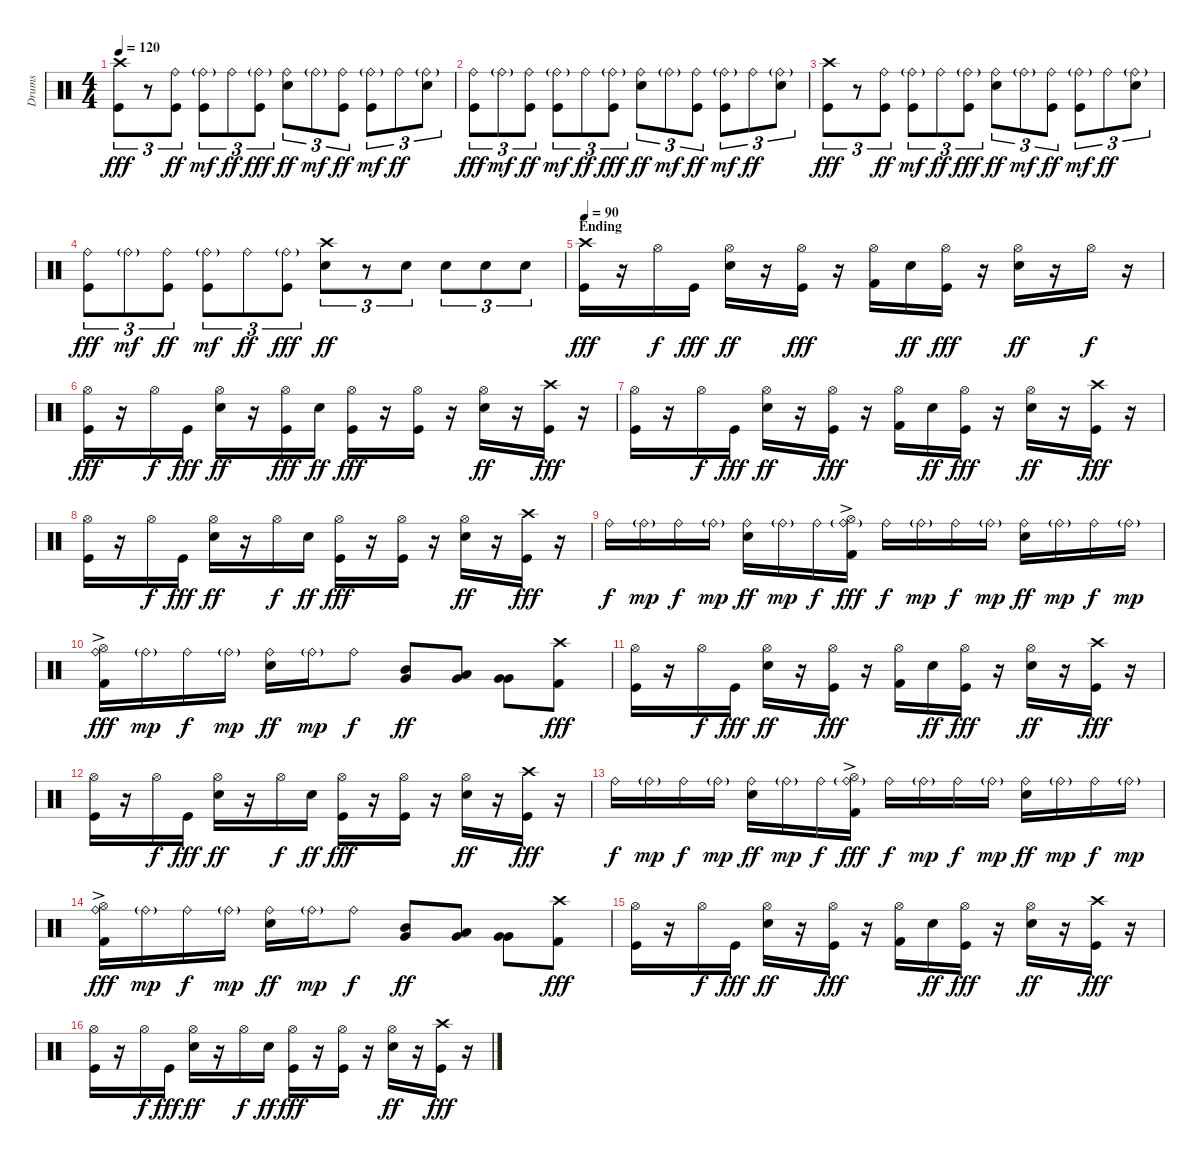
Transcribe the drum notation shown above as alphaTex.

\track ("Drums" "Drums") {instrument percussion}
\staff {score}
\articulation defaults
\ts (4 4)
\tempo 120
\clef neutral
\ks c
("Crash high (hit)" "Kick (hit)").8{tu (3 2) dy fff} r.8{tu (3 2)} ("Ride (bell)" "Kick (hit)").8{tu (3 2) dy ff} ("Ride (bell)"{g} "Kick (hit)").8{tu (3 2) dy mf} "Ride (bell)".8{tu (3 2) dy ff} ("Ride (bell)"{g} "Kick (hit)").8{tu (3 2) dy fff} ("Ride (bell)" "Snare (hit) 2").8{tu (3 2) dy ff} "Ride (bell)"{g}.8{tu (3 2) dy mf} ("Ride (bell)" "Kick (hit)").8{tu (3 2) dy ff} ("Ride (bell)"{g} "Kick (hit)").8{tu (3 2) dy mf} "Ride (bell)".8{tu (3 2) dy ff} ("Ride (bell)"{g} "Snare (hit) 2").8{tu (3 2)} |
("Ride (bell)" "Kick (hit)").8{tu (3 2) dy fff} "Ride (bell)"{g}.8{tu (3 2) dy mf} ("Ride (bell)" "Kick (hit)").8{tu (3 2) dy ff} ("Ride (bell)"{g} "Kick (hit)").8{tu (3 2) dy mf} "Ride (bell)".8{tu (3 2) dy ff} ("Ride (bell)"{g} "Kick (hit)").8{tu (3 2) dy fff} ("Ride (bell)" "Snare (hit) 2").8{tu (3 2) dy ff} "Ride (bell)"{g}.8{tu (3 2) dy mf} ("Ride (bell)" "Kick (hit)").8{tu (3 2) dy ff} ("Ride (bell)"{g} "Kick (hit)").8{tu (3 2) dy mf} "Ride (bell)".8{tu (3 2) dy ff} ("Ride (bell)"{g} "Snare (hit) 2").8{tu (3 2)} |
("Crash high (hit)" "Kick (hit)").8{tu (3 2) dy fff} r.8{tu (3 2)} ("Ride (bell)" "Kick (hit)").8{tu (3 2) dy ff} ("Ride (bell)"{g} "Kick (hit)").8{tu (3 2) dy mf} "Ride (bell)".8{tu (3 2) dy ff} ("Ride (bell)"{g} "Kick (hit)").8{tu (3 2) dy fff} ("Ride (bell)" "Snare (hit) 2").8{tu (3 2) dy ff} "Ride (bell)"{g}.8{tu (3 2) dy mf} ("Ride (bell)" "Kick (hit)").8{tu (3 2) dy ff} ("Ride (bell)"{g} "Kick (hit)").8{tu (3 2) dy mf} "Ride (bell)".8{tu (3 2) dy ff} ("Ride (bell)"{g} "Snare (hit) 2").8{tu (3 2)} |
("Ride (bell)" "Kick (hit)").8{tu (3 2) dy fff} "Ride (bell)"{g}.8{tu (3 2) dy mf} ("Ride (bell)" "Kick (hit)").8{tu (3 2) dy ff} ("Ride (bell)"{g} "Kick (hit)").8{tu (3 2) dy mf} "Ride (bell)".8{tu (3 2) dy ff} ("Ride (bell)"{g} "Kick (hit)").8{tu (3 2) dy fff} ("Crash high (hit)" "Snare (hit) 2").8{tu (3 2) dy ff} r.8{tu (3 2)} "Snare (hit) 2".8{tu (3 2)} "Snare (hit) 2".8{tu (3 2)} "Snare (hit) 2".8{tu (3 2)} "Snare (hit) 2".8{tu (3 2)} |
\section ("" "Ending")
\tempo 90
("Crash high (hit)" "Kick (hit)").16{dy fff} r.16 "Hi-Hat (open)".16{dy f} "Kick (hit)".16{dy fff} ("Hi-Hat (open)" "Snare (hit) 2").16{dy ff} r.16 ("Hi-Hat (open)" "Kick (hit)").16{dy fff} r.16 ("Hi-Hat (open)" "Kick (hit) 2").16 "Snare (hit) 2".16{dy ff} ("Hi-Hat (open)" "Kick (hit)").16{dy fff} r.16 ("Hi-Hat (open)" "Snare (hit) 2").16{dy ff} r.16 "Hi-Hat (open)".16{dy f} r.16 |
("Hi-Hat (open)" "Kick (hit)").16{dy fff} r.16 "Hi-Hat (open)".16{dy f} "Kick (hit)".16{dy fff} ("Hi-Hat (open)" "Snare (hit) 2").16{dy ff} r.16 ("Hi-Hat (open)" "Kick (hit)").16{dy fff} "Snare (hit) 2".16{dy ff} ("Hi-Hat (open)" "Kick (hit)").16{dy fff} r.16 ("Hi-Hat (open)" "Kick (hit)").16 r.16 ("Hi-Hat (open)" "Snare (hit) 2").16{dy ff} r.16 ("Crash high (hit)" "Kick (hit)").16{dy fff} r.16 |
("Hi-Hat (open)" "Kick (hit)").16 r.16 "Hi-Hat (open)".16{dy f} "Kick (hit)".16{dy fff} ("Hi-Hat (open)" "Snare (hit) 2").16{dy ff} r.16 ("Hi-Hat (open)" "Kick (hit)").16{dy fff} r.16 ("Hi-Hat (open)" "Kick (hit) 2").16 "Snare (hit) 2".16{dy ff} ("Hi-Hat (open)" "Kick (hit)").16{dy fff} r.16 ("Hi-Hat (open)" "Snare (hit) 2").16{dy ff} r.16 ("Crash high (hit)" "Kick (hit)").16{dy fff} r.16 |
("Hi-Hat (open)" "Kick (hit)").16 r.16 "Hi-Hat (open)".16{dy f} "Kick (hit)".16{dy fff} ("Hi-Hat (open)" "Snare (hit) 2").16{dy ff} r.16 "Hi-Hat (open)".16{dy f} "Snare (hit) 2".16{dy ff} ("Hi-Hat (open)" "Kick (hit)").16{dy fff} r.16 ("Hi-Hat (open)" "Kick (hit)").16 r.16 ("Hi-Hat (open)" "Snare (hit) 2").16{dy ff} r.16 ("Crash high (hit)" "Kick (hit)").16{dy fff} r.16 |
"Ride (bell)".16{dy f} "Ride (bell)"{g}.16{dy mp} "Ride (bell)".16{dy f} "Ride (bell)"{g}.16{dy mp} ("Ride (bell)" "Snare (hit) 2").16{dy ff} "Ride (bell)"{g}.16{dy mp} "Ride (bell)".16{dy f} ("Hi-Hat (open)"{ac} "Ride (bell)"{g} "Kick (hit) 2").16{dy fff} "Ride (bell)".16{dy f} "Ride (bell)"{g}.16{dy mp} "Ride (bell)".16{dy f} "Ride (bell)"{g}.16{dy mp} ("Ride (bell)" "Snare (hit) 2").16{dy ff} "Ride (bell)"{g}.16{dy mp} "Ride (bell)".16{dy f} "Ride (bell)"{g}.16{dy mp} |
("Hi-Hat (open)"{ac} "Ride (bell)" "Kick (hit) 2").16{dy fff} "Ride (bell)"{g}.16{dy mp} "Ride (bell)".16{dy f} "Ride (bell)"{g}.16{dy mp} ("Ride (bell)" "Snare (hit) 2").16{dy ff} "Ride (bell)"{g}.16{dy mp} "Ride (bell)".8{dy f} ("Mid Tom (hit)" "Very Low Tom (hit)").8{dy ff} ("Low Tom (hit)" "Very Low Tom (hit)").8 ("Very Low Tom (hit)" "Very Low Tom (hit)").8 ("Crash high (hit)" "Kick (hit) 2").8{dy fff} |
("Hi-Hat (open)" "Kick (hit)").16 r.16 "Hi-Hat (open)".16{dy f} "Kick (hit)".16{dy fff} ("Hi-Hat (open)" "Snare (hit) 2").16{dy ff} r.16 ("Hi-Hat (open)" "Kick (hit)").16{dy fff} r.16 ("Hi-Hat (open)" "Kick (hit) 2").16 "Snare (hit) 2".16{dy ff} ("Hi-Hat (open)" "Kick (hit)").16{dy fff} r.16 ("Hi-Hat (open)" "Snare (hit) 2").16{dy ff} r.16 ("Crash high (hit)" "Kick (hit)").16{dy fff} r.16 |
("Hi-Hat (open)" "Kick (hit)").16 r.16 "Hi-Hat (open)".16{dy f} "Kick (hit)".16{dy fff} ("Hi-Hat (open)" "Snare (hit) 2").16{dy ff} r.16 "Hi-Hat (open)".16{dy f} "Snare (hit) 2".16{dy ff} ("Hi-Hat (open)" "Kick (hit)").16{dy fff} r.16 ("Hi-Hat (open)" "Kick (hit)").16 r.16 ("Hi-Hat (open)" "Snare (hit) 2").16{dy ff} r.16 ("Crash high (hit)" "Kick (hit)").16{dy fff} r.16 |
"Ride (bell)".16{dy f} "Ride (bell)"{g}.16{dy mp} "Ride (bell)".16{dy f} "Ride (bell)"{g}.16{dy mp} ("Ride (bell)" "Snare (hit) 2").16{dy ff} "Ride (bell)"{g}.16{dy mp} "Ride (bell)".16{dy f} ("Hi-Hat (open)"{ac} "Ride (bell)"{g} "Kick (hit) 2").16{dy fff} "Ride (bell)".16{dy f} "Ride (bell)"{g}.16{dy mp} "Ride (bell)".16{dy f} "Ride (bell)"{g}.16{dy mp} ("Ride (bell)" "Snare (hit) 2").16{dy ff} "Ride (bell)"{g}.16{dy mp} "Ride (bell)".16{dy f} "Ride (bell)"{g}.16{dy mp} |
("Hi-Hat (open)"{ac} "Ride (bell)" "Kick (hit) 2").16{dy fff} "Ride (bell)"{g}.16{dy mp} "Ride (bell)".16{dy f} "Ride (bell)"{g}.16{dy mp} ("Ride (bell)" "Snare (hit) 2").16{dy ff} "Ride (bell)"{g}.16{dy mp} "Ride (bell)".8{dy f} ("Mid Tom (hit)" "Very Low Tom (hit)").8{dy ff} ("Low Tom (hit)" "Very Low Tom (hit)").8 ("Very Low Tom (hit)" "Very Low Tom (hit)").8 ("Crash high (hit)" "Kick (hit) 2").8{dy fff} |
("Hi-Hat (open)" "Kick (hit)").16 r.16 "Hi-Hat (open)".16{dy f} "Kick (hit)".16{dy fff} ("Hi-Hat (open)" "Snare (hit) 2").16{dy ff} r.16 ("Hi-Hat (open)" "Kick (hit)").16{dy fff} r.16 ("Hi-Hat (open)" "Kick (hit) 2").16 "Snare (hit) 2".16{dy ff} ("Hi-Hat (open)" "Kick (hit)").16{dy fff} r.16 ("Hi-Hat (open)" "Snare (hit) 2").16{dy ff} r.16 ("Crash high (hit)" "Kick (hit)").16{dy fff} r.16 |
("Hi-Hat (open)" "Kick (hit)").16 r.16 "Hi-Hat (open)".16{dy f} "Kick (hit)".16{dy fff} ("Hi-Hat (open)" "Snare (hit) 2").16{dy ff} r.16 "Hi-Hat (open)".16{dy f} "Snare (hit) 2".16{dy ff} ("Hi-Hat (open)" "Kick (hit)").16{dy fff} r.16 ("Hi-Hat (open)" "Kick (hit)").16 r.16 ("Hi-Hat (open)" "Snare (hit) 2").16{dy ff} r.16 ("Crash high (hit)" "Kick (hit)").16{dy fff} r.16
